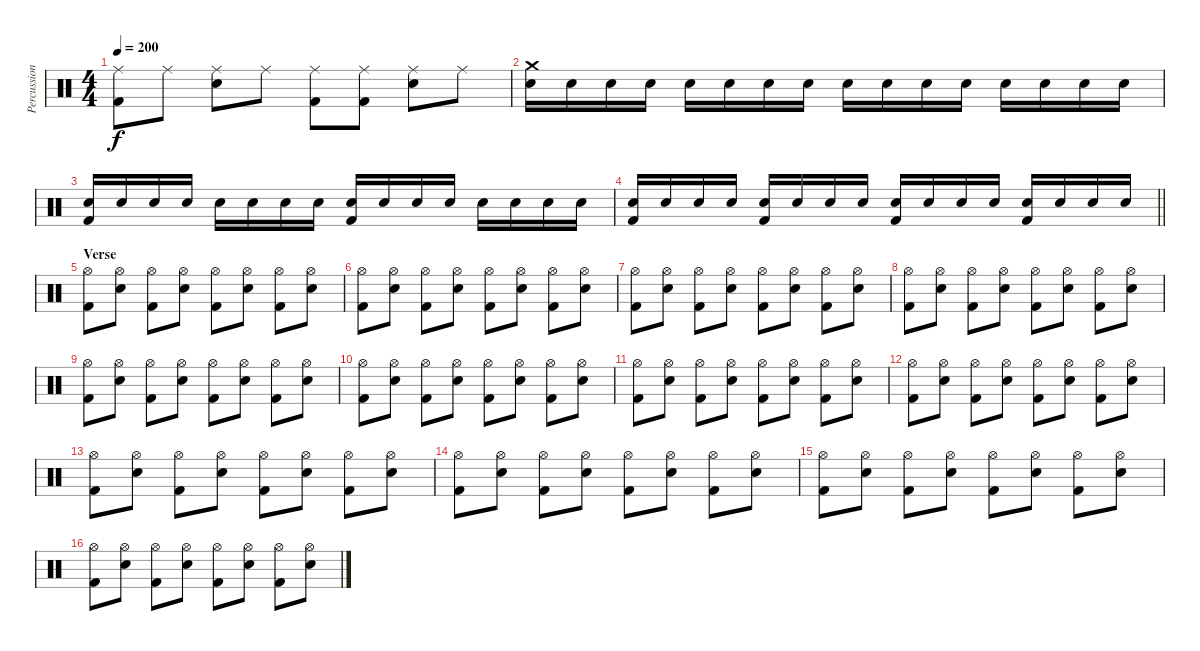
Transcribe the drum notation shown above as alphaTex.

\track ("Percussion" "Percussion") {instrument percussion}
\staff {score}
\articulation defaults
\ts (4 4)
\tempo 200
\clef neutral
\ks c
("Ride (middle)" "Kick (hit) 2").8{dy f} "Ride (middle)".8 ("Ride (middle)" "Snare (hit) 2").8 "Ride (middle)".8 ("Ride (middle)" "Kick (hit) 2").8 ("Ride (middle)" "Kick (hit) 2").8 ("Ride (middle)" "Snare (hit) 2").8 "Ride (middle)".8 |
("Crash medium (hit)" "Snare (hit) 2").16 "Snare (hit) 2".16 "Snare (hit) 2".16 "Snare (hit) 2".16 "Snare (hit) 2".16 "Snare (hit) 2".16 "Snare (hit) 2".16 "Snare (hit) 2".16 "Snare (hit) 2".16 "Snare (hit) 2".16 "Snare (hit) 2".16 "Snare (hit) 2".16 "Snare (hit) 2".16 "Snare (hit) 2".16 "Snare (hit) 2".16 "Snare (hit) 2".16 |
("Snare (hit) 2" "Kick (hit) 2").16 "Snare (hit) 2".16 "Snare (hit) 2".16 "Snare (hit) 2".16 "Snare (hit) 2".16 "Snare (hit) 2".16 "Snare (hit) 2".16 "Snare (hit) 2".16 ("Snare (hit) 2" "Kick (hit) 2").16 "Snare (hit) 2".16 "Snare (hit) 2".16 "Snare (hit) 2".16 "Snare (hit) 2".16 "Snare (hit) 2".16 "Snare (hit) 2".16 "Snare (hit) 2".16 |
\barLineRight lightlight
("Snare (hit) 2" "Kick (hit) 2").16 "Snare (hit) 2".16 "Snare (hit) 2".16 "Snare (hit) 2".16 ("Snare (hit) 2" "Kick (hit) 2").16 "Snare (hit) 2".16 "Snare (hit) 2".16 "Snare (hit) 2".16 ("Snare (hit) 2" "Kick (hit) 2").16 "Snare (hit) 2".16 "Snare (hit) 2".16 "Snare (hit) 2".16 ("Snare (hit) 2" "Kick (hit) 2").16 "Snare (hit) 2".16 "Snare (hit) 2".16 "Snare (hit) 2".16 |
\section ("" "Verse")
("Hi-Hat (open)" "Kick (hit) 2").8 ("Hi-Hat (open)" "Snare (hit) 2").8 ("Hi-Hat (open)" "Kick (hit) 2").8 ("Hi-Hat (open)" "Snare (hit) 2").8 ("Hi-Hat (open)" "Kick (hit) 2").8 ("Hi-Hat (open)" "Snare (hit) 2").8 ("Hi-Hat (open)" "Kick (hit) 2").8 ("Hi-Hat (open)" "Snare (hit) 2").8 |
("Hi-Hat (open)" "Kick (hit) 2").8 ("Hi-Hat (open)" "Snare (hit) 2").8 ("Hi-Hat (open)" "Kick (hit) 2").8 ("Hi-Hat (open)" "Snare (hit) 2").8 ("Hi-Hat (open)" "Kick (hit) 2").8 ("Hi-Hat (open)" "Snare (hit) 2").8 ("Hi-Hat (open)" "Kick (hit) 2").8 ("Hi-Hat (open)" "Snare (hit) 2").8 |
("Hi-Hat (open)" "Kick (hit) 2").8 ("Hi-Hat (open)" "Snare (hit) 2").8 ("Hi-Hat (open)" "Kick (hit) 2").8 ("Hi-Hat (open)" "Snare (hit) 2").8 ("Hi-Hat (open)" "Kick (hit) 2").8 ("Hi-Hat (open)" "Snare (hit) 2").8 ("Hi-Hat (open)" "Kick (hit) 2").8 ("Hi-Hat (open)" "Snare (hit) 2").8 |
("Hi-Hat (open)" "Kick (hit) 2").8 ("Hi-Hat (open)" "Snare (hit) 2").8 ("Hi-Hat (open)" "Kick (hit) 2").8 ("Hi-Hat (open)" "Snare (hit) 2").8 ("Hi-Hat (open)" "Kick (hit) 2").8 ("Hi-Hat (open)" "Snare (hit) 2").8 ("Hi-Hat (open)" "Kick (hit) 2").8 ("Hi-Hat (open)" "Snare (hit) 2").8 |
("Hi-Hat (open)" "Kick (hit) 2").8 ("Hi-Hat (open)" "Snare (hit) 2").8 ("Hi-Hat (open)" "Kick (hit) 2").8 ("Hi-Hat (open)" "Snare (hit) 2").8 ("Hi-Hat (open)" "Kick (hit) 2").8 ("Hi-Hat (open)" "Snare (hit) 2").8 ("Hi-Hat (open)" "Kick (hit) 2").8 ("Hi-Hat (open)" "Snare (hit) 2").8 |
("Hi-Hat (open)" "Kick (hit) 2").8 ("Hi-Hat (open)" "Snare (hit) 2").8 ("Hi-Hat (open)" "Kick (hit) 2").8 ("Hi-Hat (open)" "Snare (hit) 2").8 ("Hi-Hat (open)" "Kick (hit) 2").8 ("Hi-Hat (open)" "Snare (hit) 2").8 ("Hi-Hat (open)" "Kick (hit) 2").8 ("Hi-Hat (open)" "Snare (hit) 2").8 |
("Hi-Hat (open)" "Kick (hit) 2").8 ("Hi-Hat (open)" "Snare (hit) 2").8 ("Hi-Hat (open)" "Kick (hit) 2").8 ("Hi-Hat (open)" "Snare (hit) 2").8 ("Hi-Hat (open)" "Kick (hit) 2").8 ("Hi-Hat (open)" "Snare (hit) 2").8 ("Hi-Hat (open)" "Kick (hit) 2").8 ("Hi-Hat (open)" "Snare (hit) 2").8 |
("Hi-Hat (open)" "Kick (hit) 2").8 ("Hi-Hat (open)" "Snare (hit) 2").8 ("Hi-Hat (open)" "Kick (hit) 2").8 ("Hi-Hat (open)" "Snare (hit) 2").8 ("Hi-Hat (open)" "Kick (hit) 2").8 ("Hi-Hat (open)" "Snare (hit) 2").8 ("Hi-Hat (open)" "Kick (hit) 2").8 ("Hi-Hat (open)" "Snare (hit) 2").8 |
("Hi-Hat (open)" "Kick (hit) 2").8 ("Hi-Hat (open)" "Snare (hit) 2").8 ("Hi-Hat (open)" "Kick (hit) 2").8 ("Hi-Hat (open)" "Snare (hit) 2").8 ("Hi-Hat (open)" "Kick (hit) 2").8 ("Hi-Hat (open)" "Snare (hit) 2").8 ("Hi-Hat (open)" "Kick (hit) 2").8 ("Hi-Hat (open)" "Snare (hit) 2").8 |
("Hi-Hat (open)" "Kick (hit) 2").8 ("Hi-Hat (open)" "Snare (hit) 2").8 ("Hi-Hat (open)" "Kick (hit) 2").8 ("Hi-Hat (open)" "Snare (hit) 2").8 ("Hi-Hat (open)" "Kick (hit) 2").8 ("Hi-Hat (open)" "Snare (hit) 2").8 ("Hi-Hat (open)" "Kick (hit) 2").8 ("Hi-Hat (open)" "Snare (hit) 2").8 |
("Hi-Hat (open)" "Kick (hit) 2").8 ("Hi-Hat (open)" "Snare (hit) 2").8 ("Hi-Hat (open)" "Kick (hit) 2").8 ("Hi-Hat (open)" "Snare (hit) 2").8 ("Hi-Hat (open)" "Kick (hit) 2").8 ("Hi-Hat (open)" "Snare (hit) 2").8 ("Hi-Hat (open)" "Kick (hit) 2").8 ("Hi-Hat (open)" "Snare (hit) 2").8 |
("Hi-Hat (open)" "Kick (hit) 2").8 ("Hi-Hat (open)" "Snare (hit) 2").8 ("Hi-Hat (open)" "Kick (hit) 2").8 ("Hi-Hat (open)" "Snare (hit) 2").8 ("Hi-Hat (open)" "Kick (hit) 2").8 ("Hi-Hat (open)" "Snare (hit) 2").8 ("Hi-Hat (open)" "Kick (hit) 2").8 ("Hi-Hat (open)" "Snare (hit) 2").8
